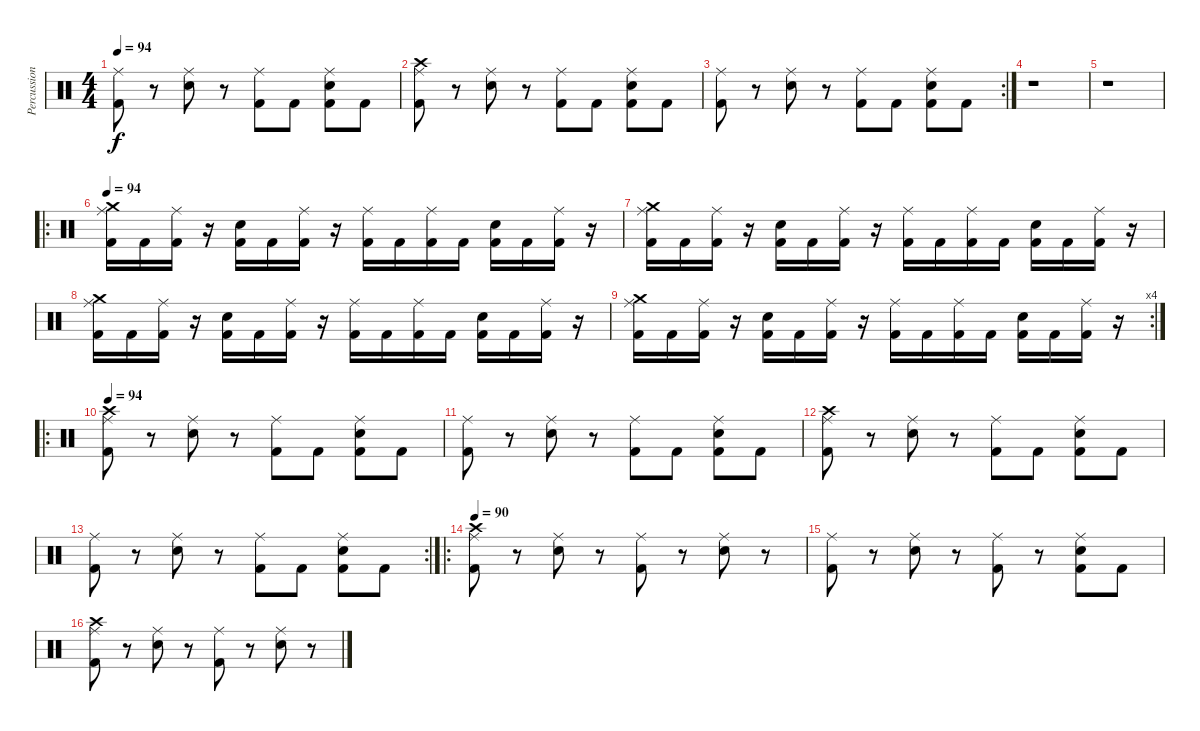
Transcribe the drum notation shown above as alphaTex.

\track ("Percussion" "Percussion") {instrument percussion}
\staff {score}
\articulation defaults
\ts (4 4)
\tempo 94
\clef neutral
\ks c
("Ride (middle)" "Kick (hit) 2").8{dy f} r.8 ("Ride (middle)" "Snare (hit) 2").8 r.8 ("Ride (middle)" "Kick (hit) 2").8 "Kick (hit) 2".8 ("Ride (middle)" "Snare (hit) 2" "Kick (hit) 2").8 "Kick (hit) 2".8 |
("Ride (middle)" "Crash high (hit)" "Kick (hit) 2").8 r.8 ("Ride (middle)" "Snare (hit) 2").8 r.8 ("Ride (middle)" "Kick (hit) 2").8 "Kick (hit) 2".8 ("Ride (middle)" "Snare (hit) 2" "Kick (hit) 2").8 "Kick (hit) 2".8 |
\rc 2
("Ride (middle)" "Kick (hit) 2").8 r.8 ("Ride (middle)" "Snare (hit) 2").8 r.8 ("Ride (middle)" "Kick (hit) 2").8 "Kick (hit) 2".8 ("Ride (middle)" "Snare (hit) 2" "Kick (hit) 2").8 "Kick (hit) 2".8 |
r.1 |
r.1 |
\ro
\tempo 94
("Ride (middle)" "Crash medium (hit)" "Kick (hit) 2").16 "Kick (hit) 2".16 ("Ride (middle)" "Kick (hit) 2").16 r.16 ("Snare (hit) 2" "Kick (hit) 2").16 "Kick (hit) 2".16 ("Ride (middle)" "Kick (hit) 2").16 r.16 ("Ride (middle)" "Kick (hit) 2").16 "Kick (hit) 2".16 ("Ride (middle)" "Kick (hit) 2").16 "Kick (hit) 2".16 ("Snare (hit) 2" "Kick (hit) 2").16 "Kick (hit) 2".16 ("Ride (middle)" "Kick (hit) 2").16 r.16 |
("Ride (middle)" "Crash medium (hit)" "Kick (hit) 2").16 "Kick (hit) 2".16 ("Ride (middle)" "Kick (hit) 2").16 r.16 ("Snare (hit) 2" "Kick (hit) 2").16 "Kick (hit) 2".16 ("Ride (middle)" "Kick (hit) 2").16 r.16 ("Ride (middle)" "Kick (hit) 2").16 "Kick (hit) 2".16 ("Ride (middle)" "Kick (hit) 2").16 "Kick (hit) 2".16 ("Snare (hit) 2" "Kick (hit) 2").16 "Kick (hit) 2".16 ("Ride (middle)" "Kick (hit) 2").16 r.16 |
("Ride (middle)" "Crash medium (hit)" "Kick (hit) 2").16 "Kick (hit) 2".16 ("Ride (middle)" "Kick (hit) 2").16 r.16 ("Snare (hit) 2" "Kick (hit) 2").16 "Kick (hit) 2".16 ("Ride (middle)" "Kick (hit) 2").16 r.16 ("Ride (middle)" "Kick (hit) 2").16 "Kick (hit) 2".16 ("Ride (middle)" "Kick (hit) 2").16 "Kick (hit) 2".16 ("Snare (hit) 2" "Kick (hit) 2").16 "Kick (hit) 2".16 ("Ride (middle)" "Kick (hit) 2").16 r.16 |
\rc 4
("Ride (middle)" "Crash medium (hit)" "Kick (hit) 2").16 "Kick (hit) 2".16 ("Ride (middle)" "Kick (hit) 2").16 r.16 ("Snare (hit) 2" "Kick (hit) 2").16 "Kick (hit) 2".16 ("Ride (middle)" "Kick (hit) 2").16 r.16 ("Ride (middle)" "Kick (hit) 2").16 "Kick (hit) 2".16 ("Ride (middle)" "Kick (hit) 2").16 "Kick (hit) 2".16 ("Snare (hit) 2" "Kick (hit) 2").16 "Kick (hit) 2".16 ("Ride (middle)" "Kick (hit) 2").16 r.16 |
\ro
\tempo 94
("Ride (middle)" "Crash high (hit)" "Kick (hit) 2").8 r.8 ("Ride (middle)" "Snare (hit) 2").8 r.8 ("Ride (middle)" "Kick (hit) 2").8 "Kick (hit) 2".8 ("Ride (middle)" "Snare (hit) 2" "Kick (hit) 2").8 "Kick (hit) 2".8 |
("Ride (middle)" "Kick (hit) 2").8 r.8 ("Ride (middle)" "Snare (hit) 2").8 r.8 ("Ride (middle)" "Kick (hit) 2").8 "Kick (hit) 2".8 ("Ride (middle)" "Snare (hit) 2" "Kick (hit) 2").8 "Kick (hit) 2".8 |
("Ride (middle)" "Crash high (hit)" "Kick (hit) 2").8 r.8 ("Ride (middle)" "Snare (hit) 2").8 r.8 ("Ride (middle)" "Kick (hit) 2").8 "Kick (hit) 2".8 ("Ride (middle)" "Snare (hit) 2" "Kick (hit) 2").8 "Kick (hit) 2".8 |
\rc 2
("Ride (middle)" "Kick (hit) 2").8 r.8 ("Ride (middle)" "Snare (hit) 2").8 r.8 ("Ride (middle)" "Kick (hit) 2").8 "Kick (hit) 2".8 ("Ride (middle)" "Snare (hit) 2" "Kick (hit) 2").8 "Kick (hit) 2".8 |
\ro
\tempo 90
("Ride (middle)" "Crash high (hit)" "Kick (hit) 2").8 r.8 ("Ride (middle)" "Snare (hit) 2").8 r.8 ("Ride (middle)" "Kick (hit) 2").8 r.8 ("Ride (middle)" "Snare (hit) 2").8 r.8 |
("Ride (middle)" "Kick (hit) 2").8 r.8 ("Ride (middle)" "Snare (hit) 2").8 r.8 ("Ride (middle)" "Kick (hit) 2").8 r.8 ("Ride (middle)" "Snare (hit) 2" "Kick (hit) 2").8 "Kick (hit) 2".8 |
("Ride (middle)" "Crash high (hit)" "Kick (hit) 2").8 r.8 ("Ride (middle)" "Snare (hit) 2").8 r.8 ("Ride (middle)" "Kick (hit) 2").8 r.8 ("Ride (middle)" "Snare (hit) 2").8 r.8
